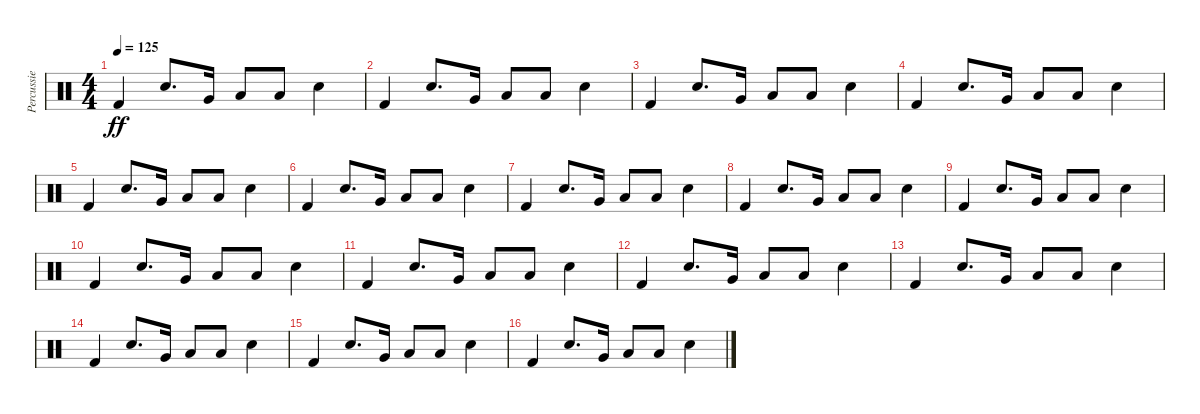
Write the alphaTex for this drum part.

\track ("Percussie" "Percussie") {instrument percussion}
\staff {score}
\articulation defaults
\ts (4 4)
\tempo 125
\clef neutral
\ks c "Kick (hit) 2".4{dy ff} "Electric Snare (hit)".8{d} "Very Low Tom (hit)".16 "Low Tom (hit)".8 "Low Tom (hit)".8 "Snare (hit) 2".4
|
"Kick (hit) 2".4 "Electric Snare (hit)".8{d} "Very Low Tom (hit)".16 "Low Tom (hit)".8 "Low Tom (hit)".8 "Snare (hit) 2".4 |
"Kick (hit) 2".4 "Electric Snare (hit)".8{d} "Very Low Tom (hit)".16 "Low Tom (hit)".8 "Low Tom (hit)".8 "Snare (hit) 2".4 |
"Kick (hit) 2".4 "Electric Snare (hit)".8{d} "Very Low Tom (hit)".16 "Low Tom (hit)".8 "Low Tom (hit)".8 "Snare (hit) 2".4 |
"Kick (hit) 2".4 "Electric Snare (hit)".8{d} "Very Low Tom (hit)".16 "Low Tom (hit)".8 "Low Tom (hit)".8 "Snare (hit) 2".4 |
"Kick (hit) 2".4 "Electric Snare (hit)".8{d} "Very Low Tom (hit)".16 "Low Tom (hit)".8 "Low Tom (hit)".8 "Snare (hit) 2".4 |
"Kick (hit) 2".4 "Electric Snare (hit)".8{d} "Very Low Tom (hit)".16 "Low Tom (hit)".8 "Low Tom (hit)".8 "Snare (hit) 2".4 |
"Kick (hit) 2".4 "Electric Snare (hit)".8{d} "Very Low Tom (hit)".16 "Low Tom (hit)".8 "Low Tom (hit)".8 "Snare (hit) 2".4 |
"Kick (hit) 2".4 "Electric Snare (hit)".8{d} "Very Low Tom (hit)".16 "Low Tom (hit)".8 "Low Tom (hit)".8 "Snare (hit) 2".4 |
"Kick (hit) 2".4 "Electric Snare (hit)".8{d} "Very Low Tom (hit)".16 "Low Tom (hit)".8 "Low Tom (hit)".8 "Snare (hit) 2".4 |
"Kick (hit) 2".4 "Electric Snare (hit)".8{d} "Very Low Tom (hit)".16 "Low Tom (hit)".8 "Low Tom (hit)".8 "Snare (hit) 2".4 |
"Kick (hit) 2".4 "Electric Snare (hit)".8{d} "Very Low Tom (hit)".16 "Low Tom (hit)".8 "Low Tom (hit)".8 "Snare (hit) 2".4 |
"Kick (hit) 2".4 "Electric Snare (hit)".8{d} "Very Low Tom (hit)".16 "Low Tom (hit)".8 "Low Tom (hit)".8 "Snare (hit) 2".4 |
"Kick (hit) 2".4 "Electric Snare (hit)".8{d} "Very Low Tom (hit)".16 "Low Tom (hit)".8 "Low Tom (hit)".8 "Snare (hit) 2".4 |
"Kick (hit) 2".4 "Electric Snare (hit)".8{d} "Very Low Tom (hit)".16 "Low Tom (hit)".8 "Low Tom (hit)".8 "Snare (hit) 2".4 |
"Kick (hit) 2".4 "Electric Snare (hit)".8{d} "Very Low Tom (hit)".16 "Low Tom (hit)".8 "Low Tom (hit)".8 "Snare (hit) 2".4
